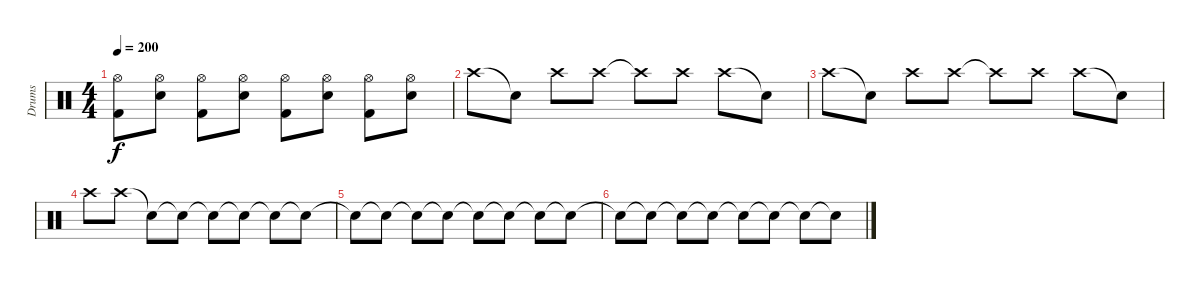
\track ("Drums" "Drums") {instrument percussion}
\staff {score}
\articulation defaults
\ts (4 4)
\tempo 200
\clef neutral
\ks c
("Kick (hit) 2" "Hi-Hat (open)").8{dy f} ("Snare (hit) 2" "Hi-Hat (open)").8 ("Kick (hit) 2" "Hi-Hat (open)").8 ("Snare (hit) 2" "Hi-Hat (open)").8 ("Kick (hit) 2" "Hi-Hat (open)").8 ("Snare (hit) 2" "Hi-Hat (open)").8 ("Kick (hit) 2" "Hi-Hat (open)").8 ("Snare (hit) 2" "Hi-Hat (open)").8 |
"Crash high (hit)".8 "Snare (hit)"{t}.8 "Crash high (hit)".8 "Crash high (hit)".8 "Crash high (hit)"{t}.8 "Crash high (hit)".8 "Crash high (hit)".8 "Snare (hit)"{t}.8 |
"Crash high (hit)".8 "Snare (hit)"{t}.8 "Crash high (hit)".8 "Crash high (hit)".8 "Crash high (hit)"{t}.8 "Crash high (hit)".8 "Crash high (hit)".8 "Snare (hit)"{t}.8 |
"Crash high (hit)".8 "Crash high (hit)".8 "Snare (hit)"{t}.8 "Snare (hit)"{t}.8 "Snare (hit)"{t}.8 "Snare (hit)"{t}.8 "Snare (hit)"{t}.8 "Snare (hit)"{t}.8 |
"Snare (hit)"{t}.8 "Snare (hit)"{t}.8 "Snare (hit)"{t}.8 "Snare (hit)"{t}.8 "Snare (hit)"{t}.8 "Snare (hit)"{t}.8 "Snare (hit)"{t}.8 "Snare (hit)"{t}.8 |
"Snare (hit)"{t}.8 "Snare (hit)"{t}.8 "Snare (hit)"{t}.8 "Snare (hit)"{t}.8 "Snare (hit)"{t}.8 "Snare (hit)"{t}.8 "Snare (hit)"{t}.8 "Snare (hit)"{t}.8
